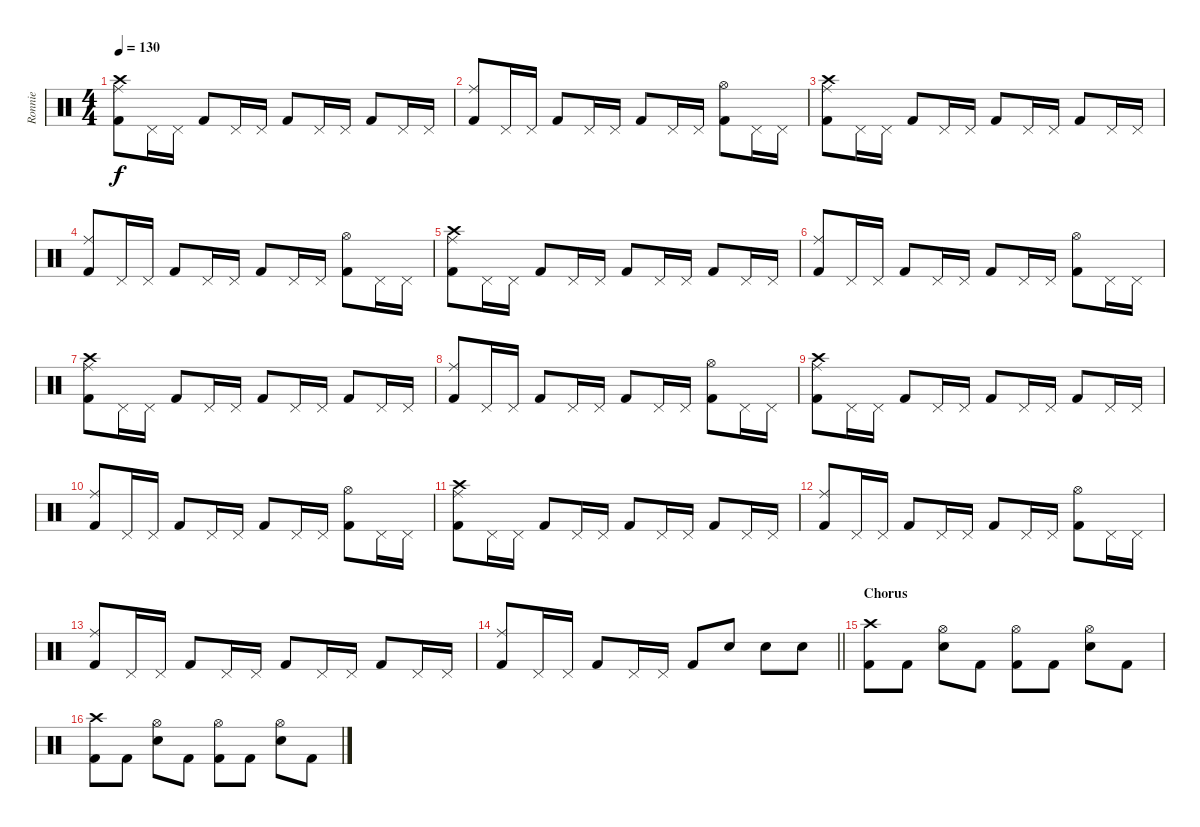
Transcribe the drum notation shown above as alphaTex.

\track ("Ronnie" "Ronnie") {instrument percussion}
\staff {score}
\articulation defaults
\ts (4 4)
\tempo 130
\clef neutral
\ks c
("Crash high (hit)" "Kick (hit) 2" "Ride (middle)").8{dy f} "Pedal Hi-Hat (hit)".16 "Pedal Hi-Hat (hit)".16 "Kick (hit) 2".8 "Pedal Hi-Hat (hit)".16 "Pedal Hi-Hat (hit)".16 "Kick (hit) 2".8 "Pedal Hi-Hat (hit)".16 "Pedal Hi-Hat (hit)".16 "Kick (hit) 2".8 "Pedal Hi-Hat (hit)".16 "Pedal Hi-Hat (hit)".16 |
("Kick (hit) 2" "Ride (middle)").8 "Pedal Hi-Hat (hit)".16 "Pedal Hi-Hat (hit)".16 "Kick (hit) 2".8 "Pedal Hi-Hat (hit)".16 "Pedal Hi-Hat (hit)".16 "Kick (hit) 2".8 "Pedal Hi-Hat (hit)".16 "Pedal Hi-Hat (hit)".16 ("Kick (hit) 2" "Hi-Hat (open)").8 "Pedal Hi-Hat (hit)".16 "Pedal Hi-Hat (hit)".16 |
("Crash high (hit)" "Kick (hit) 2" "Ride (middle)").8 "Pedal Hi-Hat (hit)".16 "Pedal Hi-Hat (hit)".16 "Kick (hit) 2".8 "Pedal Hi-Hat (hit)".16 "Pedal Hi-Hat (hit)".16 "Kick (hit) 2".8 "Pedal Hi-Hat (hit)".16 "Pedal Hi-Hat (hit)".16 "Kick (hit) 2".8 "Pedal Hi-Hat (hit)".16 "Pedal Hi-Hat (hit)".16 |
("Kick (hit) 2" "Ride (middle)").8 "Pedal Hi-Hat (hit)".16 "Pedal Hi-Hat (hit)".16 "Kick (hit) 2".8 "Pedal Hi-Hat (hit)".16 "Pedal Hi-Hat (hit)".16 "Kick (hit) 2".8 "Pedal Hi-Hat (hit)".16 "Pedal Hi-Hat (hit)".16 ("Kick (hit) 2" "Hi-Hat (open)").8 "Pedal Hi-Hat (hit)".16 "Pedal Hi-Hat (hit)".16 |
("Crash high (hit)" "Kick (hit) 2" "Ride (middle)").8 "Pedal Hi-Hat (hit)".16 "Pedal Hi-Hat (hit)".16 "Kick (hit) 2".8 "Pedal Hi-Hat (hit)".16 "Pedal Hi-Hat (hit)".16 "Kick (hit) 2".8 "Pedal Hi-Hat (hit)".16 "Pedal Hi-Hat (hit)".16 "Kick (hit) 2".8 "Pedal Hi-Hat (hit)".16 "Pedal Hi-Hat (hit)".16 |
("Kick (hit) 2" "Ride (middle)").8 "Pedal Hi-Hat (hit)".16 "Pedal Hi-Hat (hit)".16 "Kick (hit) 2".8 "Pedal Hi-Hat (hit)".16 "Pedal Hi-Hat (hit)".16 "Kick (hit) 2".8 "Pedal Hi-Hat (hit)".16 "Pedal Hi-Hat (hit)".16 ("Kick (hit) 2" "Hi-Hat (open)").8 "Pedal Hi-Hat (hit)".16 "Pedal Hi-Hat (hit)".16 |
("Crash high (hit)" "Kick (hit) 2" "Ride (middle)").8 "Pedal Hi-Hat (hit)".16 "Pedal Hi-Hat (hit)".16 "Kick (hit) 2".8 "Pedal Hi-Hat (hit)".16 "Pedal Hi-Hat (hit)".16 "Kick (hit) 2".8 "Pedal Hi-Hat (hit)".16 "Pedal Hi-Hat (hit)".16 "Kick (hit) 2".8 "Pedal Hi-Hat (hit)".16 "Pedal Hi-Hat (hit)".16 |
("Kick (hit) 2" "Ride (middle)").8 "Pedal Hi-Hat (hit)".16 "Pedal Hi-Hat (hit)".16 "Kick (hit) 2".8 "Pedal Hi-Hat (hit)".16 "Pedal Hi-Hat (hit)".16 "Kick (hit) 2".8 "Pedal Hi-Hat (hit)".16 "Pedal Hi-Hat (hit)".16 ("Kick (hit) 2" "Hi-Hat (open)").8 "Pedal Hi-Hat (hit)".16 "Pedal Hi-Hat (hit)".16 |
("Crash high (hit)" "Kick (hit) 2" "Ride (middle)").8 "Pedal Hi-Hat (hit)".16 "Pedal Hi-Hat (hit)".16 "Kick (hit) 2".8 "Pedal Hi-Hat (hit)".16 "Pedal Hi-Hat (hit)".16 "Kick (hit) 2".8 "Pedal Hi-Hat (hit)".16 "Pedal Hi-Hat (hit)".16 "Kick (hit) 2".8 "Pedal Hi-Hat (hit)".16 "Pedal Hi-Hat (hit)".16 |
("Kick (hit) 2" "Ride (middle)").8 "Pedal Hi-Hat (hit)".16 "Pedal Hi-Hat (hit)".16 "Kick (hit) 2".8 "Pedal Hi-Hat (hit)".16 "Pedal Hi-Hat (hit)".16 "Kick (hit) 2".8 "Pedal Hi-Hat (hit)".16 "Pedal Hi-Hat (hit)".16 ("Kick (hit) 2" "Hi-Hat (open)").8 "Pedal Hi-Hat (hit)".16 "Pedal Hi-Hat (hit)".16 |
("Crash high (hit)" "Kick (hit) 2" "Ride (middle)").8 "Pedal Hi-Hat (hit)".16 "Pedal Hi-Hat (hit)".16 "Kick (hit) 2".8 "Pedal Hi-Hat (hit)".16 "Pedal Hi-Hat (hit)".16 "Kick (hit) 2".8 "Pedal Hi-Hat (hit)".16 "Pedal Hi-Hat (hit)".16 "Kick (hit) 2".8 "Pedal Hi-Hat (hit)".16 "Pedal Hi-Hat (hit)".16 |
("Kick (hit) 2" "Ride (middle)").8 "Pedal Hi-Hat (hit)".16 "Pedal Hi-Hat (hit)".16 "Kick (hit) 2".8 "Pedal Hi-Hat (hit)".16 "Pedal Hi-Hat (hit)".16 "Kick (hit) 2".8 "Pedal Hi-Hat (hit)".16 "Pedal Hi-Hat (hit)".16 ("Kick (hit) 2" "Hi-Hat (open)").8 "Pedal Hi-Hat (hit)".16 "Pedal Hi-Hat (hit)".16 |
("Kick (hit) 2" "Ride (middle)").8 "Pedal Hi-Hat (hit)".16 "Pedal Hi-Hat (hit)".16 "Kick (hit) 2".8 "Pedal Hi-Hat (hit)".16 "Pedal Hi-Hat (hit)".16 "Kick (hit) 2".8 "Pedal Hi-Hat (hit)".16 "Pedal Hi-Hat (hit)".16 "Kick (hit) 2".8 "Pedal Hi-Hat (hit)".16 "Pedal Hi-Hat (hit)".16 |
\barLineRight lightlight
("Kick (hit) 2" "Ride (middle)").8 "Pedal Hi-Hat (hit)".16 "Pedal Hi-Hat (hit)".16 "Kick (hit) 2".8 "Pedal Hi-Hat (hit)".16 "Pedal Hi-Hat (hit)".16 "Kick (hit) 2".8 "Electric Snare (hit)".8 "Electric Snare (hit)".8 "Electric Snare (hit)".8 |
\section ("" "Chorus")
("Kick (hit) 2" "Crash high (hit)").8 "Kick (hit) 2".8 ("Electric Snare (hit)" "Hi-Hat (open)").8 "Kick (hit) 2".8 ("Kick (hit) 2" "Hi-Hat (open)").8 "Kick (hit) 2".8 ("Electric Snare (hit)" "Hi-Hat (open)").8 "Kick (hit) 2".8 |
("Kick (hit) 2" "Crash high (hit)").8 "Kick (hit) 2".8 ("Electric Snare (hit)" "Hi-Hat (open)").8 "Kick (hit) 2".8 ("Kick (hit) 2" "Hi-Hat (open)").8 "Kick (hit) 2".8 ("Electric Snare (hit)" "Hi-Hat (open)").8 "Kick (hit) 2".8
